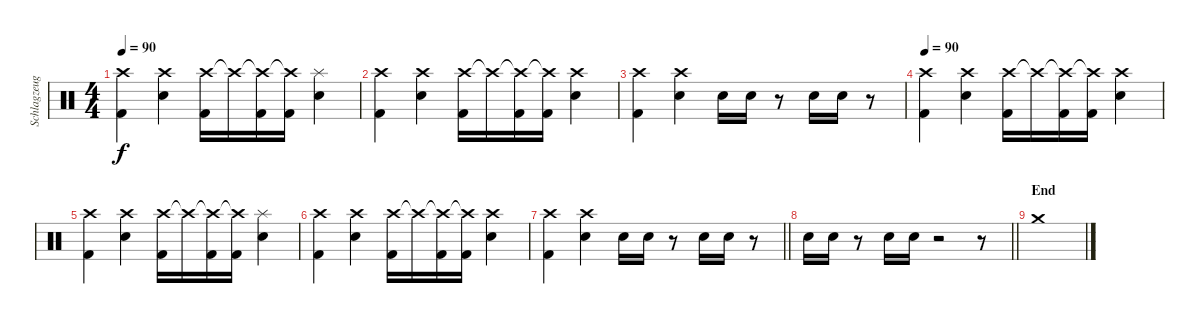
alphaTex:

\track ("Schlagzeug" "Schlagzeug") {instrument percussion}
\staff {score}
\articulation defaults
\ts (4 4)
\tempo 90
\clef neutral
\ks c
("Crash high (hit)" "Kick (hit) 2").4{dy f} ("Crash high (hit)" "Snare (hit) 2").4 ("Crash high (hit)" "Kick (hit) 2").16 "Crash high (hit)"{t}.16 ("Crash high (hit)"{t} "Kick (hit) 2").16 ("Crash high (hit)"{t} "Kick (hit) 2").16 ("Splash (hit)" "Snare (hit) 2").4 |
("Crash high (hit)" "Kick (hit) 2").4 ("Crash high (hit)" "Snare (hit) 2").4 ("Crash high (hit)" "Kick (hit) 2").16 "Crash high (hit)"{t}.16 ("Crash high (hit)"{t} "Kick (hit) 2").16 ("Crash high (hit)"{t} "Kick (hit) 2").16 ("Crash high (hit)" "Snare (hit) 2").4 |
("Crash high (hit)" "Kick (hit) 2").4 ("Crash high (hit)" "Snare (hit) 2").4 "Snare (hit) 2".16 "Snare (hit) 2".16 r.8 "Snare (hit) 2".16 "Snare (hit) 2".16 r.8 |
\tempo 90
("Crash high (hit)" "Kick (hit) 2").4 ("Crash high (hit)" "Snare (hit) 2").4 ("Crash high (hit)" "Kick (hit) 2").16 "Crash high (hit)"{t}.16 ("Crash high (hit)"{t} "Kick (hit) 2").16 ("Crash high (hit)"{t} "Kick (hit) 2").16 ("Crash high (hit)" "Snare (hit) 2").4 |
("Crash high (hit)" "Kick (hit) 2").4 ("Crash high (hit)" "Snare (hit) 2").4 ("Crash high (hit)" "Kick (hit) 2").16 "Crash high (hit)"{t}.16 ("Crash high (hit)"{t} "Kick (hit) 2").16 ("Crash high (hit)"{t} "Kick (hit) 2").16 ("Splash (hit)" "Snare (hit) 2").4 |
("Crash high (hit)" "Kick (hit) 2").4 ("Crash high (hit)" "Snare (hit) 2").4 ("Crash high (hit)" "Kick (hit) 2").16 "Crash high (hit)"{t}.16 ("Crash high (hit)"{t} "Kick (hit) 2").16 ("Crash high (hit)"{t} "Kick (hit) 2").16 ("Crash high (hit)" "Snare (hit) 2").4 |
\barLineRight lightlight
("Crash high (hit)" "Kick (hit) 2").4 ("Crash high (hit)" "Snare (hit) 2").4 "Snare (hit) 2".16 "Snare (hit) 2".16 r.8 "Snare (hit) 2".16 "Snare (hit) 2".16 r.8 |
\barLineRight lightlight "Snare (hit) 2".16 "Snare (hit) 2".16
r.8 "Snare (hit) 2".16 "Snare (hit) 2".16 r.2 r.8 |
\section ("" "End")
"Crash medium (hit)".1
